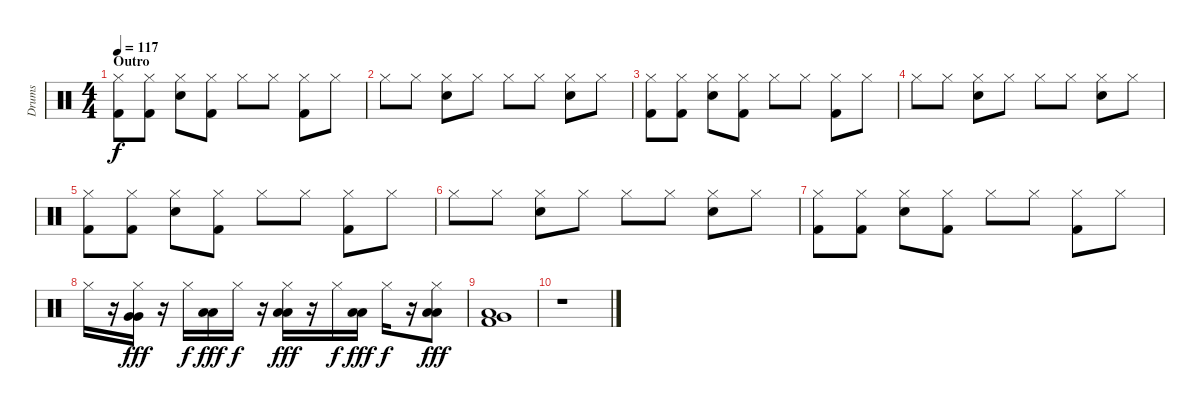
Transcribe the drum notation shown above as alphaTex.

\track ("Drums" "Drums") {instrument percussion}
\staff {score}
\articulation defaults
\ts (4 4)
\section ("" "Outro")
\tempo 117
\clef neutral
\ks c
("Hi-Hat (closed)" "Kick (hit) 2").8{dy f} ("Hi-Hat (closed)" "Kick (hit) 2").8 ("Hi-Hat (closed)" "Snare (hit) 2").8 ("Hi-Hat (closed)" "Kick (hit) 2").8 "Hi-Hat (closed)".8 "Hi-Hat (closed)".8 ("Hi-Hat (closed)" "Kick (hit) 2").8 "Hi-Hat (closed)".8 |
"Hi-Hat (closed)".8 "Hi-Hat (closed)".8 ("Hi-Hat (closed)" "Snare (hit) 2").8 "Hi-Hat (closed)".8 "Hi-Hat (closed)".8 "Hi-Hat (closed)".8 ("Hi-Hat (closed)" "Snare (hit) 2").8 "Hi-Hat (closed)".8 |
("Hi-Hat (closed)" "Kick (hit) 2").8 ("Hi-Hat (closed)" "Kick (hit) 2").8 ("Hi-Hat (closed)" "Snare (hit) 2").8 ("Hi-Hat (closed)" "Kick (hit) 2").8 "Hi-Hat (closed)".8 "Hi-Hat (closed)".8 ("Hi-Hat (closed)" "Kick (hit) 2").8 "Hi-Hat (closed)".8 |
"Hi-Hat (closed)".8 "Hi-Hat (closed)".8 ("Hi-Hat (closed)" "Snare (hit) 2").8 "Hi-Hat (closed)".8 "Hi-Hat (closed)".8 "Hi-Hat (closed)".8 ("Hi-Hat (closed)" "Snare (hit) 2").8 "Hi-Hat (closed)".8 |
("Hi-Hat (closed)" "Kick (hit) 2").8 ("Hi-Hat (closed)" "Kick (hit) 2").8 ("Hi-Hat (closed)" "Snare (hit) 2").8 ("Hi-Hat (closed)" "Kick (hit) 2").8 "Hi-Hat (closed)".8 "Hi-Hat (closed)".8 ("Hi-Hat (closed)" "Kick (hit) 2").8 "Hi-Hat (closed)".8 |
"Hi-Hat (closed)".8 "Hi-Hat (closed)".8 ("Hi-Hat (closed)" "Snare (hit) 2").8 "Hi-Hat (closed)".8 "Hi-Hat (closed)".8 "Hi-Hat (closed)".8 ("Hi-Hat (closed)" "Snare (hit) 2").8 "Hi-Hat (closed)".8 |
("Hi-Hat (closed)" "Kick (hit) 2").8 ("Hi-Hat (closed)" "Kick (hit) 2").8 ("Hi-Hat (closed)" "Snare (hit) 2").8 ("Hi-Hat (closed)" "Kick (hit) 2").8 "Hi-Hat (closed)".8 "Hi-Hat (closed)".8 ("Hi-Hat (closed)" "Kick (hit) 2").8 "Hi-Hat (closed)".8 |
"Hi-Hat (closed)".16 r.16 ("Very Low Tom (hit)" "Very Low Tom (hit)" "Hi-Hat (closed)").16{dy fff} r.16 "Hi-Hat (closed)".16{dy f} ("Low Floor Tom (hit)" "Low Floor Tom (hit)").16{dy fff} "Hi-Hat (closed)".16{dy f} r.16 ("Low Floor Tom (hit)" "Low Floor Tom (hit)" "Hi-Hat (closed)").16{dy fff} r.16 "Hi-Hat (closed)".16{dy f} ("Low Floor Tom (hit)" "Low Floor Tom (hit)").16{dy fff} "Hi-Hat (closed)".16{dy f} r.16 ("Low Floor Tom (hit)" "Low Floor Tom (hit)" "Hi-Hat (closed)").8{dy fff} |
("Very Low Tom (hit)" "Low Floor Tom (hit)" "Kick (hit) 2").1 |
r.1
